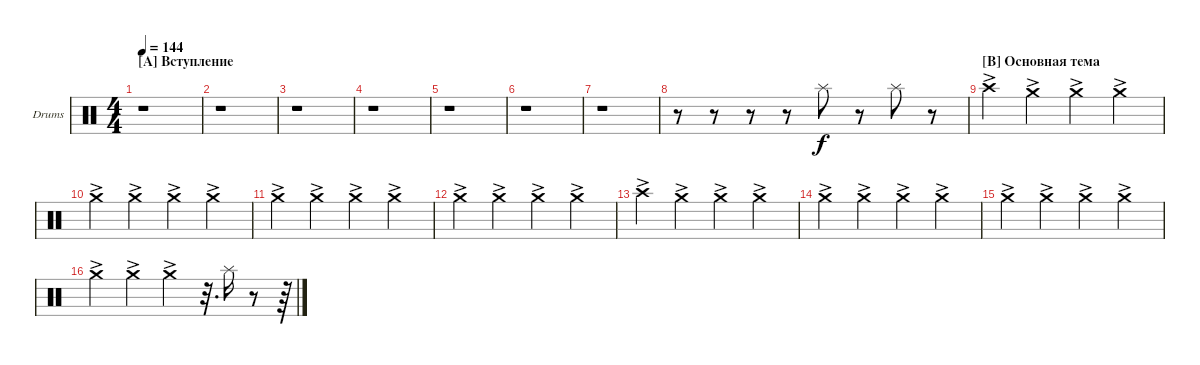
\defaultSystemsLayout 4
\bracketExtendMode groupsimilarinstruments
\firstSystemTrackNameOrientation horizontal
\otherSystemsTrackNameOrientation horizontal
\track ("Cymbals" "Drums") {instrument percussion}
\staff {score}
\articulation defaults
\ts (4 4)
\section ("A" "Вступление")
\tempo 144
\clef neutral
\scale
0.472222
\ks c
r.1{dy f} |
\scale
0.263889 r.1 |
\scale
0.263889 r.1 |
\scale
0.333333 r.1 |
\scale
0.333333 r.1 |
\scale
0.333333 r.1 |
\scale
0.333333 r.1 |
\scale
0.333333 r.8 r.8 r.8 r.8 "Splash (hit)".8 r.8 "Splash (hit)".8 r.8 |
\section ("B" "Основная тема ")
\scale
0.333333 "Crash high (hit)"{ac}.4 "Crash medium (hit)"{ac}.4 "Crash medium (hit)"{ac}.4 "Crash medium (hit)"{ac}.4 |
"Crash medium (hit)"{ac}.4 "Crash medium (hit)"{ac}.4 "Crash medium (hit)"{ac}.4 "Crash medium (hit)"{ac}.4 |
"Crash medium (hit)"{ac}.4 "Crash medium (hit)"{ac}.4 "Crash medium (hit)"{ac}.4 "Crash medium (hit)"{ac}.4 |
"Crash medium (hit)"{ac}.4 "Crash medium (hit)"{ac}.4 "Crash medium (hit)"{ac}.4 "Crash medium (hit)"{ac}.4 |
"Crash high (hit)"{ac}.4 "Crash medium (hit)"{ac}.4 "Crash medium (hit)"{ac}.4 "Crash medium (hit)"{ac}.4 |
"Crash medium (hit)"{ac}.4 "Crash medium (hit)"{ac}.4 "Crash medium (hit)"{ac}.4 "Crash medium (hit)"{ac}.4 |
"Crash medium (hit)"{ac}.4 "Crash medium (hit)"{ac}.4 "Crash medium (hit)"{ac}.4 "Crash medium (hit)"{ac}.4 |
"Crash medium (hit)"{ac}.4 "Crash medium (hit)"{ac}.4 "Crash medium (hit)"{ac}.4 r.32{d} "Splash (hit)".16 r.8 r.64
